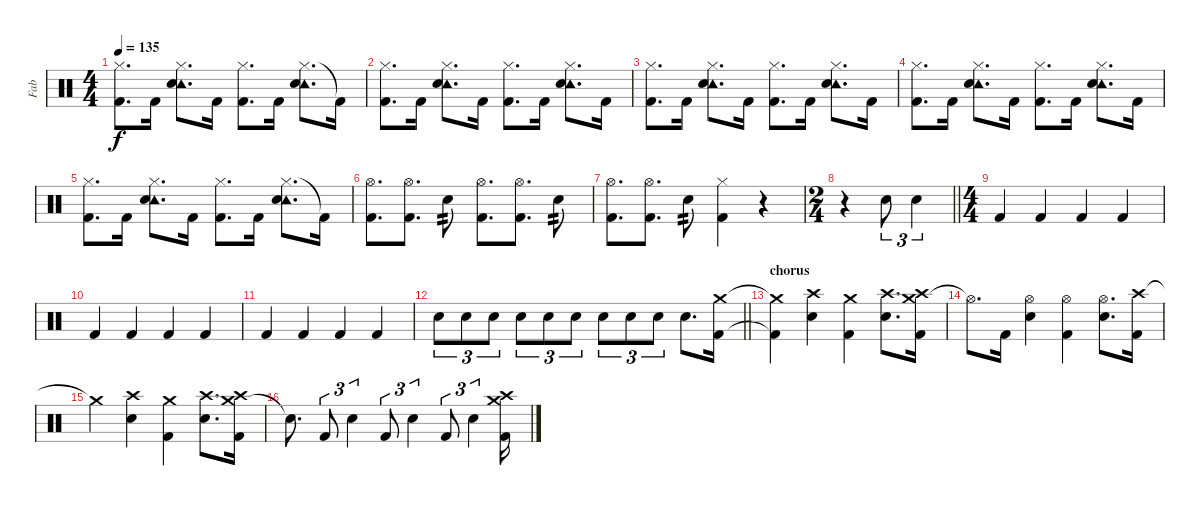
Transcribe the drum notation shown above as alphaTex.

\track ("Fab" "Fab") {instrument percussion}
\staff {score}
\articulation defaults
\ts (4 4)
\tempo 135
\clef neutral
\ks c
("Hi-Hat (closed)" "Kick (hit) 2").8{d dy f} "Kick (hit) 2".16 ("Hi-Hat (closed)" "Tambourine (hit)" "Snare (hit) 2").8{d} "Kick (hit) 2".16 ("Hi-Hat (closed)" "Kick (hit) 2").8{d} "Kick (hit) 2".16 ("Hi-Hat (closed)" "Tambourine (hit)" "Snare (hit) 2").8{d} "Kick (hit) 2"{t}.16 |
("Hi-Hat (closed)" "Kick (hit) 2").8{d} "Kick (hit) 2".16 ("Hi-Hat (closed)" "Tambourine (hit)" "Snare (hit) 2").8{d} "Kick (hit) 2".16 ("Hi-Hat (closed)" "Kick (hit) 2").8{d} "Kick (hit) 2".16 ("Hi-Hat (closed)" "Tambourine (hit)" "Snare (hit) 2").8{d} "Kick (hit) 2".16 |
("Hi-Hat (closed)" "Kick (hit) 2").8{d} "Kick (hit) 2".16 ("Hi-Hat (closed)" "Tambourine (hit)" "Snare (hit) 2").8{d} "Kick (hit) 2".16 ("Hi-Hat (closed)" "Kick (hit) 2").8{d} "Kick (hit) 2".16 ("Hi-Hat (closed)" "Tambourine (hit)" "Snare (hit) 2").8{d} "Kick (hit) 2".16 |
("Hi-Hat (closed)" "Kick (hit) 2").8{d} "Kick (hit) 2".16 ("Hi-Hat (closed)" "Tambourine (hit)" "Snare (hit) 2").8{d} "Kick (hit) 2".16 ("Hi-Hat (closed)" "Kick (hit) 2").8{d} "Kick (hit) 2".16 ("Hi-Hat (closed)" "Tambourine (hit)" "Snare (hit) 2").8{d} "Kick (hit) 2".16 |
("Hi-Hat (closed)" "Kick (hit) 2").8{d} "Kick (hit) 2".16 ("Hi-Hat (closed)" "Tambourine (hit)" "Snare (hit) 2").8{d} "Kick (hit) 2".16 ("Hi-Hat (closed)" "Kick (hit) 2").8{d} "Kick (hit) 2".16 ("Hi-Hat (closed)" "Tambourine (hit)" "Snare (hit) 2").8{d} "Kick (hit) 2"{t}.16 |
("Hi-Hat (open)" "Kick (hit) 2").8{d} ("Hi-Hat (open)" "Kick (hit) 2").8{d} "Snare (hit) 2".8{tp 2} ("Hi-Hat (open)" "Kick (hit) 2").8{d} ("Hi-Hat (open)" "Kick (hit) 2").8{d} "Snare (hit) 2".8{tp 2} |
("Hi-Hat (open)" "Kick (hit) 2").8{d} ("Hi-Hat (open)" "Kick (hit) 2").8{d} "Snare (hit) 2".8{tp 2} ("Hi-Hat (closed)" "Kick (hit) 2").4 r.4 |
\ts (2 4)
\barLineRight lightlight
r.4 "Snare (hit) 2".8{tu (3 2)} "Snare (hit) 2".4{tu (3 2)} |
\ts (4 4)
"Kick (hit) 2".4 "Kick (hit) 2".4 "Kick (hit) 2".4 "Kick (hit) 2".4 |
"Kick (hit) 2".4 "Kick (hit) 2".4 "Kick (hit) 2".4 "Kick (hit) 2".4 |
"Kick (hit) 2".4 "Kick (hit) 2".4 "Kick (hit) 2".4 "Kick (hit) 2".4 |
\barLineRight lightlight "Snare (hit) 2".8{tu (3 2)} "Snare (hit) 2".8{tu (3 2)} "Snare (hit) 2".8{tu (3 2)} "Snare (hit) 2".8{tu (3 2)} "Snare (hit) 2".8{tu (3 2)} "Snare (hit) 2".8{tu (3 2)} "Snare (hit) 2".8{tu (3 2)} "Snare (hit) 2".8{tu (3 2)} "Snare (hit) 2".8{tu (3 2)} "Snare (hit) 2".8{d}
("Crash medium (hit)" "Kick (hit) 2").16 |
\section ("" "chorus")
("Crash medium (hit)"{t} "Kick (hit) 2"{t}).4 ("Crash high (hit)" "Snare (hit) 2").4 ("Crash medium (hit)" "Kick (hit) 2").4 ("Crash high (hit)" "Snare (hit) 2").8{d} ("Crash medium (hit)" "Crash high (hit)" "Kick (hit) 2").16 |
"Hi-Hat (open)"{t}.8{d} "Kick (hit) 2".16 ("Hi-Hat (open)" "Snare (hit) 2").4 ("Hi-Hat (open)" "Kick (hit) 2").4 ("Hi-Hat (open)" "Snare (hit) 2").8{d} ("Crash high (hit)" "Kick (hit) 2").16 |
"Crash medium (hit)"{t}.4 ("Crash high (hit)" "Snare (hit) 2").4 ("Crash medium (hit)" "Kick (hit) 2").4 ("Crash high (hit)" "Snare (hit) 2").8{d} ("Crash medium (hit)" "Crash high (hit)" "Kick (hit) 2").16 |
"Snare (hit)"{t}.8{d} "Kick (hit) 2".8{tu (3 2)} "Snare (hit) 2".4{tu (3 2)} "Kick (hit) 2".8{tu (3 2)} "Snare (hit) 2".4{tu (3 2)} "Kick (hit) 2".8{tu (3 2)} "Snare (hit) 2".4{tu (3 2)} ("Crash medium (hit)" "Crash high (hit)" "Kick (hit) 2").16
